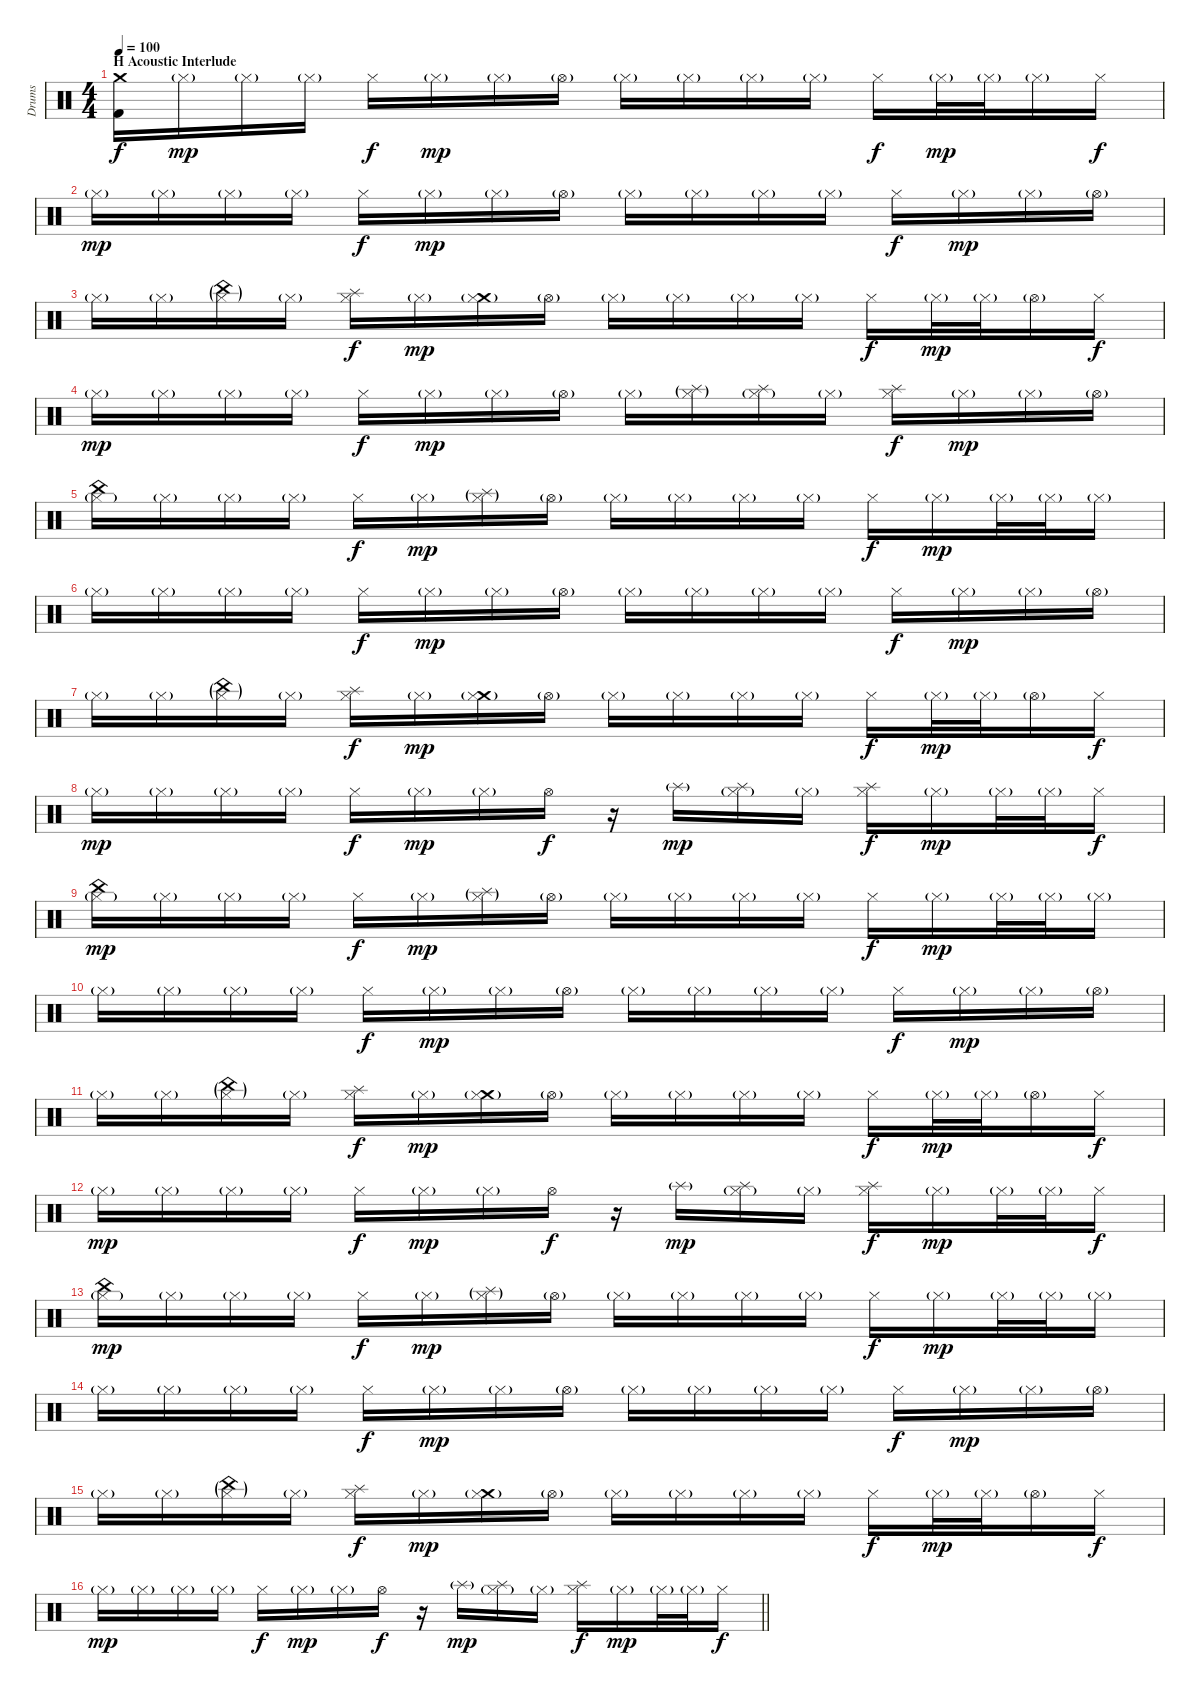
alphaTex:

\track ("Drums" "Drums") {instrument percussion}
\staff {score}
\articulation defaults
\ts (4 4)
\section ("" "H Acoustic Interlude")
\tempo 100
\clef neutral
\ks c
("Crash medium (hit)" "Kick (hit) 2").16{dy f} "Hi-Hat (closed)"{g}.16{dy mp} "Hi-Hat (closed)"{g}.16 "Hi-Hat (closed)"{g}.16 "Hi-Hat (closed)".16{dy f} "Hi-Hat (closed)"{g}.16{dy mp} "Hi-Hat (closed)"{g}.16 "Hi-Hat (open)"{g}.16 "Hi-Hat (closed)"{g}.16 "Hi-Hat (closed)"{g}.16 "Hi-Hat (closed)"{g}.16 "Hi-Hat (closed)"{g}.16 "Hi-Hat (closed)".16{dy f} "Hi-Hat (closed)"{g}.32{dy mp} "Hi-Hat (closed)"{g}.32 "Hi-Hat (closed)"{g}.16 "Hi-Hat (closed)".16{dy f} |
"Hi-Hat (closed)"{g}.16{dy mp} "Hi-Hat (closed)"{g}.16 "Hi-Hat (closed)"{g}.16 "Hi-Hat (closed)"{g}.16 "Hi-Hat (closed)".16{dy f} "Hi-Hat (closed)"{g}.16{dy mp} "Hi-Hat (closed)"{g}.16 "Hi-Hat (open)"{g}.16 "Hi-Hat (closed)"{g}.16 "Hi-Hat (closed)"{g}.16 "Hi-Hat (closed)"{g}.16 "Hi-Hat (closed)"{g}.16 "Hi-Hat (closed)".16{dy f} "Hi-Hat (closed)"{g}.16{dy mp} "Hi-Hat (closed)"{g}.16 "Hi-Hat (open)"{g}.16 |
"Hi-Hat (closed)"{g}.16 "Hi-Hat (closed)"{g}.16 ("China (hit)"{g} "Hi-Hat (closed)"{g}).16 "Hi-Hat (closed)"{g}.16 ("Splash (hit)" "Hi-Hat (closed)").16{dy f} "Hi-Hat (closed)"{g}.16{dy mp} ("Crash medium (hit)"{g} "Hi-Hat (closed)"{g}).16 "Hi-Hat (open)"{g}.16 "Hi-Hat (closed)"{g}.16 "Hi-Hat (closed)"{g}.16 "Hi-Hat (closed)"{g}.16 "Hi-Hat (closed)"{g}.16 "Hi-Hat (closed)".16{dy f} "Hi-Hat (closed)"{g}.32{dy mp} "Hi-Hat (closed)"{g}.32 "Hi-Hat (open)"{g}.16 "Hi-Hat (closed)".16{dy f} |
"Hi-Hat (closed)"{g}.16{dy mp} "Hi-Hat (closed)"{g}.16 "Hi-Hat (closed)"{g}.16 "Hi-Hat (closed)"{g}.16 "Hi-Hat (closed)".16{dy f} "Hi-Hat (closed)"{g}.16{dy mp} "Hi-Hat (closed)"{g}.16 "Hi-Hat (open)"{g}.16 "Hi-Hat (closed)"{g}.16 ("Splash (hit)"{g} "Hi-Hat (closed)"{g}).16 ("Splash (hit)" "Hi-Hat (closed)"{g}).16 "Hi-Hat (closed)"{g}.16 ("Splash (hit)" "Hi-Hat (closed)").16{dy f} "Hi-Hat (closed)"{g}.16{dy mp} "Hi-Hat (closed)"{g}.16 "Hi-Hat (open)"{g}.16 |
("China (hit)" "Hi-Hat (closed)"{g}).16 "Hi-Hat (closed)"{g}.16 "Hi-Hat (closed)"{g}.16 "Hi-Hat (closed)"{g}.16 "Hi-Hat (closed)".16{dy f} "Hi-Hat (closed)"{g}.16{dy mp} ("Splash (hit)"{g} "Hi-Hat (closed)"{g}).16 "Hi-Hat (open)"{g}.16 "Hi-Hat (closed)"{g}.16 "Hi-Hat (closed)"{g}.16 "Hi-Hat (closed)"{g}.16 "Hi-Hat (closed)"{g}.16 "Hi-Hat (closed)".16{dy f} "Hi-Hat (closed)"{g}.16{dy mp} "Hi-Hat (closed)"{g}.32 "Hi-Hat (closed)"{g}.32 "Hi-Hat (closed)"{g}.16 |
"Hi-Hat (closed)"{g}.16 "Hi-Hat (closed)"{g}.16 "Hi-Hat (closed)"{g}.16 "Hi-Hat (closed)"{g}.16 "Hi-Hat (closed)".16{dy f} "Hi-Hat (closed)"{g}.16{dy mp} "Hi-Hat (closed)"{g}.16 "Hi-Hat (open)"{g}.16 "Hi-Hat (closed)"{g}.16 "Hi-Hat (closed)"{g}.16 "Hi-Hat (closed)"{g}.16 "Hi-Hat (closed)"{g}.16 "Hi-Hat (closed)".16{dy f} "Hi-Hat (closed)"{g}.16{dy mp} "Hi-Hat (closed)"{g}.16 "Hi-Hat (open)"{g}.16 |
"Hi-Hat (closed)"{g}.16 "Hi-Hat (closed)"{g}.16 ("China (hit)"{g} "Hi-Hat (closed)"{g}).16 "Hi-Hat (closed)"{g}.16 ("Splash (hit)" "Hi-Hat (closed)").16{dy f} "Hi-Hat (closed)"{g}.16{dy mp} ("Crash medium (hit)"{g} "Hi-Hat (closed)"{g}).16 "Hi-Hat (open)"{g}.16 "Hi-Hat (closed)"{g}.16 "Hi-Hat (closed)"{g}.16 "Hi-Hat (closed)"{g}.16 "Hi-Hat (closed)"{g}.16 "Hi-Hat (closed)".16{dy f} "Hi-Hat (closed)"{g}.32{dy mp} "Hi-Hat (closed)"{g}.32 "Hi-Hat (open)"{g}.16 "Hi-Hat (closed)".16{dy f} |
"Hi-Hat (closed)"{g}.16{dy mp} "Hi-Hat (closed)"{g}.16 "Hi-Hat (closed)"{g}.16 "Hi-Hat (closed)"{g}.16 "Hi-Hat (closed)".16{dy f} "Hi-Hat (closed)"{g}.16{dy mp} "Hi-Hat (closed)"{g}.16 "Hi-Hat (open)".16{dy f} r.16 "Splash (hit)"{g}.16{dy mp} ("Splash (hit)" "Hi-Hat (closed)"{g}).16 "Hi-Hat (closed)"{g}.16 ("Splash (hit)" "Hi-Hat (closed)").16{dy f} "Hi-Hat (closed)"{g}.16{dy mp} "Hi-Hat (closed)"{g}.32 "Hi-Hat (closed)"{g}.32 "Hi-Hat (closed)".16{dy f} |
("China (hit)" "Hi-Hat (closed)"{g}).16{dy mp} "Hi-Hat (closed)"{g}.16 "Hi-Hat (closed)"{g}.16 "Hi-Hat (closed)"{g}.16 "Hi-Hat (closed)".16{dy f} "Hi-Hat (closed)"{g}.16{dy mp} ("Splash (hit)"{g} "Hi-Hat (closed)"{g}).16 "Hi-Hat (open)"{g}.16 "Hi-Hat (closed)"{g}.16 "Hi-Hat (closed)"{g}.16 "Hi-Hat (closed)"{g}.16 "Hi-Hat (closed)"{g}.16 "Hi-Hat (closed)".16{dy f} "Hi-Hat (closed)"{g}.16{dy mp} "Hi-Hat (closed)"{g}.32 "Hi-Hat (closed)"{g}.32 "Hi-Hat (closed)"{g}.16 |
"Hi-Hat (closed)"{g}.16 "Hi-Hat (closed)"{g}.16 "Hi-Hat (closed)"{g}.16 "Hi-Hat (closed)"{g}.16 "Hi-Hat (closed)".16{dy f} "Hi-Hat (closed)"{g}.16{dy mp} "Hi-Hat (closed)"{g}.16 "Hi-Hat (open)"{g}.16 "Hi-Hat (closed)"{g}.16 "Hi-Hat (closed)"{g}.16 "Hi-Hat (closed)"{g}.16 "Hi-Hat (closed)"{g}.16 "Hi-Hat (closed)".16{dy f} "Hi-Hat (closed)"{g}.16{dy mp} "Hi-Hat (closed)"{g}.16 "Hi-Hat (open)"{g}.16 |
"Hi-Hat (closed)"{g}.16 "Hi-Hat (closed)"{g}.16 ("China (hit)"{g} "Hi-Hat (closed)"{g}).16 "Hi-Hat (closed)"{g}.16 ("Splash (hit)" "Hi-Hat (closed)").16{dy f} "Hi-Hat (closed)"{g}.16{dy mp} ("Crash medium (hit)"{g} "Hi-Hat (closed)"{g}).16 "Hi-Hat (open)"{g}.16 "Hi-Hat (closed)"{g}.16 "Hi-Hat (closed)"{g}.16 "Hi-Hat (closed)"{g}.16 "Hi-Hat (closed)"{g}.16 "Hi-Hat (closed)".16{dy f} "Hi-Hat (closed)"{g}.32{dy mp} "Hi-Hat (closed)"{g}.32 "Hi-Hat (open)"{g}.16 "Hi-Hat (closed)".16{dy f} |
"Hi-Hat (closed)"{g}.16{dy mp} "Hi-Hat (closed)"{g}.16 "Hi-Hat (closed)"{g}.16 "Hi-Hat (closed)"{g}.16 "Hi-Hat (closed)".16{dy f} "Hi-Hat (closed)"{g}.16{dy mp} "Hi-Hat (closed)"{g}.16 "Hi-Hat (open)".16{dy f} r.16 "Splash (hit)"{g}.16{dy mp} ("Splash (hit)" "Hi-Hat (closed)"{g}).16 "Hi-Hat (closed)"{g}.16 ("Splash (hit)" "Hi-Hat (closed)").16{dy f} "Hi-Hat (closed)"{g}.16{dy mp} "Hi-Hat (closed)"{g}.32 "Hi-Hat (closed)"{g}.32 "Hi-Hat (closed)".16{dy f} |
("China (hit)" "Hi-Hat (closed)"{g}).16{dy mp} "Hi-Hat (closed)"{g}.16 "Hi-Hat (closed)"{g}.16 "Hi-Hat (closed)"{g}.16 "Hi-Hat (closed)".16{dy f} "Hi-Hat (closed)"{g}.16{dy mp} ("Splash (hit)"{g} "Hi-Hat (closed)"{g}).16 "Hi-Hat (open)"{g}.16 "Hi-Hat (closed)"{g}.16 "Hi-Hat (closed)"{g}.16 "Hi-Hat (closed)"{g}.16 "Hi-Hat (closed)"{g}.16 "Hi-Hat (closed)".16{dy f} "Hi-Hat (closed)"{g}.16{dy mp} "Hi-Hat (closed)"{g}.32 "Hi-Hat (closed)"{g}.32 "Hi-Hat (closed)"{g}.16 |
"Hi-Hat (closed)"{g}.16 "Hi-Hat (closed)"{g}.16 "Hi-Hat (closed)"{g}.16 "Hi-Hat (closed)"{g}.16 "Hi-Hat (closed)".16{dy f} "Hi-Hat (closed)"{g}.16{dy mp} "Hi-Hat (closed)"{g}.16 "Hi-Hat (open)"{g}.16 "Hi-Hat (closed)"{g}.16 "Hi-Hat (closed)"{g}.16 "Hi-Hat (closed)"{g}.16 "Hi-Hat (closed)"{g}.16 "Hi-Hat (closed)".16{dy f} "Hi-Hat (closed)"{g}.16{dy mp} "Hi-Hat (closed)"{g}.16 "Hi-Hat (open)"{g}.16 |
"Hi-Hat (closed)"{g}.16 "Hi-Hat (closed)"{g}.16 ("China (hit)"{g} "Hi-Hat (closed)"{g}).16 "Hi-Hat (closed)"{g}.16 ("Splash (hit)" "Hi-Hat (closed)").16{dy f} "Hi-Hat (closed)"{g}.16{dy mp} ("Crash medium (hit)"{g} "Hi-Hat (closed)"{g}).16 "Hi-Hat (open)"{g}.16 "Hi-Hat (closed)"{g}.16 "Hi-Hat (closed)"{g}.16 "Hi-Hat (closed)"{g}.16 "Hi-Hat (closed)"{g}.16 "Hi-Hat (closed)".16{dy f} "Hi-Hat (closed)"{g}.32{dy mp} "Hi-Hat (closed)"{g}.32 "Hi-Hat (open)"{g}.16 "Hi-Hat (closed)".16{dy f} |
\barLineRight lightlight "Hi-Hat (closed)"{g}.16{dy mp} "Hi-Hat (closed)"{g}.16 "Hi-Hat (closed)"{g}.16 "Hi-Hat (closed)"{g}.16 "Hi-Hat (closed)".16{dy f} "Hi-Hat (closed)"{g}.16{dy mp} "Hi-Hat (closed)"{g}.16 "Hi-Hat (open)".16{dy f}
r.16 "Splash (hit)"{g}.16{dy mp} ("Splash (hit)" "Hi-Hat (closed)"{g}).16 "Hi-Hat (closed)"{g}.16 ("Splash (hit)" "Hi-Hat (closed)").16{dy f} "Hi-Hat (closed)"{g}.16{dy mp} "Hi-Hat (closed)"{g}.32 "Hi-Hat (closed)"{g}.32 "Hi-Hat (closed)".16{dy f}
